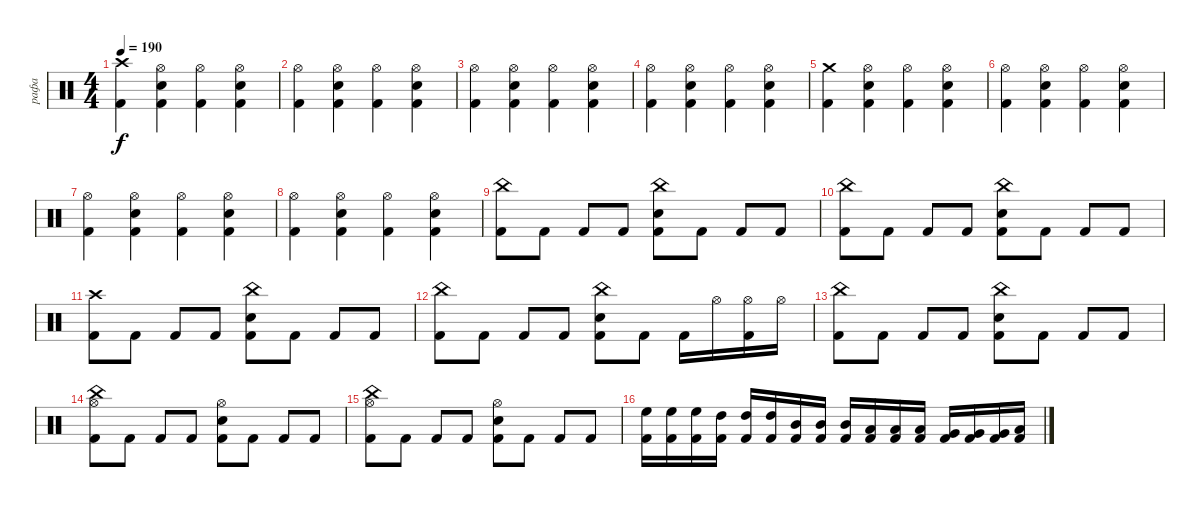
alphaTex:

\track ("рафа" "рафа") {instrument percussion}
\staff {score}
\articulation defaults
\ts (4 4)
\tempo 190
\clef neutral
\ks c
("Kick (hit) 2" "Crash high (hit)").4{dy f} ("Kick (hit) 2" "Snare (hit) 2" "Hi-Hat (open)").4 ("Kick (hit) 2" "Hi-Hat (open)").4 ("Kick (hit) 2" "Snare (hit) 2" "Hi-Hat (open)").4 |
("Kick (hit) 2" "Hi-Hat (open)").4 ("Kick (hit) 2" "Snare (hit) 2" "Hi-Hat (open)").4 ("Kick (hit) 2" "Hi-Hat (open)").4 ("Kick (hit) 2" "Snare (hit) 2" "Hi-Hat (open)").4 |
("Kick (hit) 2" "Hi-Hat (open)").4 ("Kick (hit) 2" "Snare (hit) 2" "Hi-Hat (open)").4 ("Kick (hit) 2" "Hi-Hat (open)").4 ("Kick (hit) 2" "Snare (hit) 2" "Hi-Hat (open)").4 |
("Kick (hit) 2" "Hi-Hat (open)").4 ("Kick (hit) 2" "Snare (hit) 2" "Hi-Hat (open)").4 ("Kick (hit) 2" "Hi-Hat (open)").4 ("Kick (hit) 2" "Snare (hit) 2" "Hi-Hat (open)").4 |
("Kick (hit) 2" "Crash medium (hit)").4 ("Kick (hit) 2" "Snare (hit) 2" "Hi-Hat (open)").4 ("Kick (hit) 2" "Hi-Hat (open)").4 ("Kick (hit) 2" "Snare (hit) 2" "Hi-Hat (open)").4 |
("Kick (hit) 2" "Hi-Hat (open)").4 ("Kick (hit) 2" "Snare (hit) 2" "Hi-Hat (open)").4 ("Kick (hit) 2" "Hi-Hat (open)").4 ("Kick (hit) 2" "Snare (hit) 2" "Hi-Hat (open)").4 |
("Kick (hit) 2" "Hi-Hat (open)").4 ("Kick (hit) 2" "Snare (hit) 2" "Hi-Hat (open)").4 ("Kick (hit) 2" "Hi-Hat (open)").4 ("Kick (hit) 2" "Snare (hit) 2" "Hi-Hat (open)").4 |
("Kick (hit) 2" "Hi-Hat (open)").4 ("Kick (hit) 2" "Snare (hit) 2" "Hi-Hat (open)").4 ("Kick (hit) 2" "Hi-Hat (open)").4 ("Kick (hit) 2" "Snare (hit) 2" "Hi-Hat (open)").4 |
("Kick (hit) 2" "China (hit)").8 "Kick (hit) 2".8 "Kick (hit) 2".8 "Kick (hit) 2".8 ("Kick (hit) 2" "Snare (hit) 2" "China (hit)").8 "Kick (hit) 2".8 "Kick (hit) 2".8 "Kick (hit) 2".8 |
("Kick (hit) 2" "China (hit)").8 "Kick (hit) 2".8 "Kick (hit) 2".8 "Kick (hit) 2".8 ("Kick (hit) 2" "Snare (hit) 2" "China (hit)").8 "Kick (hit) 2".8 "Kick (hit) 2".8 "Kick (hit) 2".8 |
("Kick (hit) 2" "Crash high (hit)").8 "Kick (hit) 2".8 "Kick (hit) 2".8 "Kick (hit) 2".8 ("Kick (hit) 2" "Snare (hit) 2" "China (hit)").8 "Kick (hit) 2".8 "Kick (hit) 2".8 "Kick (hit) 2".8 |
("Kick (hit) 2" "China (hit)").8 "Kick (hit) 2".8 "Kick (hit) 2".8 "Kick (hit) 2".8 ("Kick (hit) 2" "Snare (hit) 2" "China (hit)").8 "Kick (hit) 2".8 "Kick (hit) 2".16 "Hi-Hat (open)".16 ("Kick (hit) 2" "Hi-Hat (open)").16 "Hi-Hat (open)".16 |
("Kick (hit) 2" "China (hit)").8 "Kick (hit) 2".8 "Kick (hit) 2".8 "Kick (hit) 2".8 ("Kick (hit) 2" "China (hit)" "Snare (hit) 2").8 "Kick (hit) 2".8 "Kick (hit) 2".8 "Kick (hit) 2".8 |
("Kick (hit) 2" "China (hit)" "Hi-Hat (open)").8 "Kick (hit) 2".8 "Kick (hit) 2".8 "Kick (hit) 2".8 ("Kick (hit) 2" "Snare (hit) 2" "Hi-Hat (open)").8 "Kick (hit) 2".8 "Kick (hit) 2".8 "Kick (hit) 2".8 |
("Kick (hit) 2" "China (hit)" "Hi-Hat (open)").8 "Kick (hit) 2".8 "Kick (hit) 2".8 "Kick (hit) 2".8 ("Kick (hit) 2" "Snare (hit) 2" "Hi-Hat (open)").8 "Kick (hit) 2".8 "Kick (hit) 2".8 "Kick (hit) 2".8 |
("Kick (hit) 2" "High Floor Tom (hit)").16 ("Kick (hit) 2" "High Floor Tom (hit)").16 ("Kick (hit) 2" "High Floor Tom (hit)").16 ("Kick (hit) 2" "High Tom (hit)").16 ("Kick (hit) 2" "High Tom (hit)").16 ("Kick (hit) 2" "High Tom (hit)").16 ("Kick (hit) 2" "Mid Tom (hit)").16 ("Kick (hit) 2" "Mid Tom (hit)").16 ("Kick (hit) 2" "Mid Tom (hit)").16 ("Kick (hit) 2" "Low Tom (hit)").16 ("Kick (hit) 2" "Low Tom (hit)").16 ("Kick (hit) 2" "Low Tom (hit)").16 ("Kick (hit) 2" "Very Low Tom (hit)").16 ("Kick (hit) 2" "Very Low Tom (hit)").16 ("Kick (hit) 2" "Very Low Tom (hit)").16 ("Kick (hit) 2" "Low Floor Tom (hit)").16
